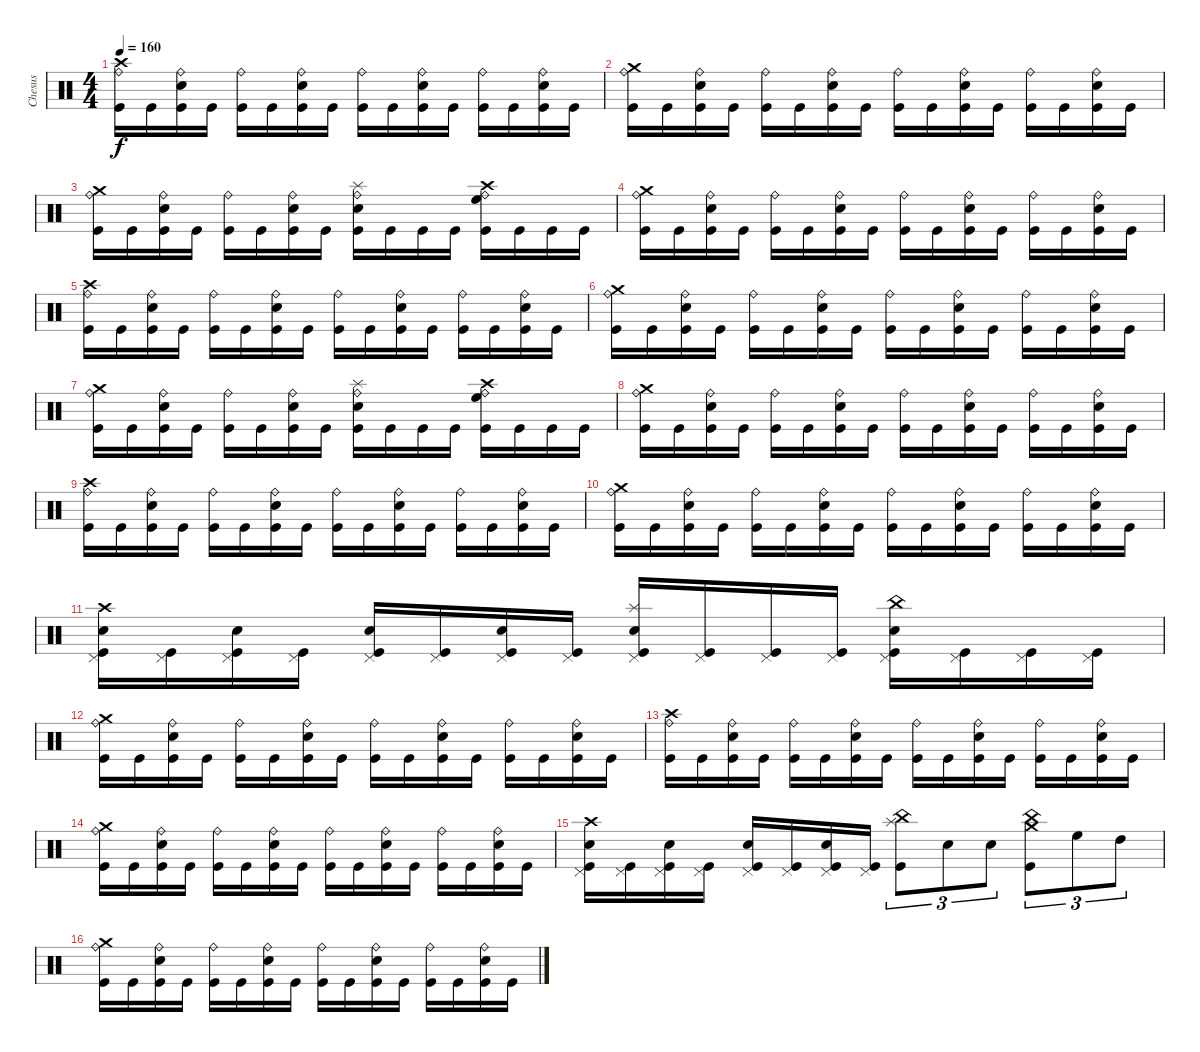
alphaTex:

\track ("Chesus" "Chesus") {instrument percussion}
\staff {score}
\articulation defaults
\ts (4 4)
\tempo 160
\clef neutral
\ks c
("Crash high (hit)" "Ride (bell)" "Kick (hit)").16{dy f} "Kick (hit)".16 ("Ride (bell)" "Snare (hit) 2" "Kick (hit)").16 "Kick (hit)".16 ("Ride (bell)" "Kick (hit)").16 "Kick (hit)".16 ("Ride (bell)" "Snare (hit) 2" "Kick (hit)").16 "Kick (hit)".16 ("Ride (bell)" "Kick (hit)").16 "Kick (hit)".16 ("Ride (bell)" "Snare (hit) 2" "Kick (hit)").16 "Kick (hit)".16 ("Ride (bell)" "Kick (hit)").16 "Kick (hit)".16 ("Ride (bell)" "Snare (hit) 2" "Kick (hit)").16 "Kick (hit)".16 |
("Crash medium (hit)" "Ride (bell)" "Kick (hit)").16 "Kick (hit)".16 ("Ride (bell)" "Snare (hit) 2" "Kick (hit)").16 "Kick (hit)".16 ("Ride (bell)" "Kick (hit)").16 "Kick (hit)".16 ("Ride (bell)" "Snare (hit) 2" "Kick (hit)").16 "Kick (hit)".16 ("Ride (bell)" "Kick (hit)").16 "Kick (hit)".16 ("Ride (bell)" "Snare (hit) 2" "Kick (hit)").16 "Kick (hit)".16 ("Ride (bell)" "Kick (hit)").16 "Kick (hit)".16 ("Ride (bell)" "Snare (hit) 2" "Kick (hit)").16 "Kick (hit)".16 |
("Crash medium (hit)" "Ride (bell)" "Kick (hit)").16 "Kick (hit)".16 ("Ride (bell)" "Snare (hit) 2" "Kick (hit)").16 "Kick (hit)".16 ("Ride (bell)" "Kick (hit)").16 "Kick (hit)".16 ("Ride (bell)" "Snare (hit) 2" "Kick (hit)").16 "Kick (hit)".16 ("Splash (hit)" "Ride (bell)" "Snare (hit) 2" "Kick (hit)").16 "Kick (hit)".16 "Kick (hit)".16 "Kick (hit)".16 ("Crash high (hit)" "Ride (bell)" "High Floor Tom (hit)" "Kick (hit)").16 "Kick (hit)".16 "Kick (hit)".16 "Kick (hit)".16 |
("Crash medium (hit)" "Ride (bell)" "Kick (hit)").16 "Kick (hit)".16 ("Ride (bell)" "Snare (hit) 2" "Kick (hit)").16 "Kick (hit)".16 ("Ride (bell)" "Kick (hit)").16 "Kick (hit)".16 ("Ride (bell)" "Snare (hit) 2" "Kick (hit)").16 "Kick (hit)".16 ("Ride (bell)" "Kick (hit)").16 "Kick (hit)".16 ("Ride (bell)" "Snare (hit) 2" "Kick (hit)").16 "Kick (hit)".16 ("Ride (bell)" "Kick (hit)").16 "Kick (hit)".16 ("Ride (bell)" "Snare (hit) 2" "Kick (hit)").16 "Kick (hit)".16 |
("Crash high (hit)" "Ride (bell)" "Kick (hit)").16 "Kick (hit)".16 ("Ride (bell)" "Snare (hit) 2" "Kick (hit)").16 "Kick (hit)".16 ("Ride (bell)" "Kick (hit)").16 "Kick (hit)".16 ("Ride (bell)" "Snare (hit) 2" "Kick (hit)").16 "Kick (hit)".16 ("Ride (bell)" "Kick (hit)").16 "Kick (hit)".16 ("Ride (bell)" "Snare (hit) 2" "Kick (hit)").16 "Kick (hit)".16 ("Ride (bell)" "Kick (hit)").16 "Kick (hit)".16 ("Ride (bell)" "Snare (hit) 2" "Kick (hit)").16 "Kick (hit)".16 |
("Crash medium (hit)" "Ride (bell)" "Kick (hit)").16 "Kick (hit)".16 ("Ride (bell)" "Snare (hit) 2" "Kick (hit)").16 "Kick (hit)".16 ("Ride (bell)" "Kick (hit)").16 "Kick (hit)".16 ("Ride (bell)" "Snare (hit) 2" "Kick (hit)").16 "Kick (hit)".16 ("Ride (bell)" "Kick (hit)").16 "Kick (hit)".16 ("Ride (bell)" "Snare (hit) 2" "Kick (hit)").16 "Kick (hit)".16 ("Ride (bell)" "Kick (hit)").16 "Kick (hit)".16 ("Ride (bell)" "Snare (hit) 2" "Kick (hit)").16 "Kick (hit)".16 |
("Crash medium (hit)" "Ride (bell)" "Kick (hit)").16 "Kick (hit)".16 ("Ride (bell)" "Snare (hit) 2" "Kick (hit)").16 "Kick (hit)".16 ("Ride (bell)" "Kick (hit)").16 "Kick (hit)".16 ("Ride (bell)" "Snare (hit) 2" "Kick (hit)").16 "Kick (hit)".16 ("Splash (hit)" "Ride (bell)" "Snare (hit) 2" "Kick (hit)").16 "Kick (hit)".16 "Kick (hit)".16 "Kick (hit)".16 ("Crash high (hit)" "Ride (bell)" "High Floor Tom (hit)" "Kick (hit)").16 "Kick (hit)".16 "Kick (hit)".16 "Kick (hit)".16 |
("Crash medium (hit)" "Ride (bell)" "Kick (hit)").16 "Kick (hit)".16 ("Ride (bell)" "Snare (hit) 2" "Kick (hit)").16 "Kick (hit)".16 ("Ride (bell)" "Kick (hit)").16 "Kick (hit)".16 ("Ride (bell)" "Snare (hit) 2" "Kick (hit)").16 "Kick (hit)".16 ("Ride (bell)" "Kick (hit)").16 "Kick (hit)".16 ("Ride (bell)" "Snare (hit) 2" "Kick (hit)").16 "Kick (hit)".16 ("Ride (bell)" "Kick (hit)").16 "Kick (hit)".16 ("Ride (bell)" "Snare (hit) 2" "Kick (hit)").16 "Kick (hit)".16 |
("Crash high (hit)" "Ride (bell)" "Kick (hit)").16 "Kick (hit)".16 ("Ride (bell)" "Snare (hit) 2" "Kick (hit)").16 "Kick (hit)".16 ("Ride (bell)" "Kick (hit)").16 "Kick (hit)".16 ("Ride (bell)" "Snare (hit) 2" "Kick (hit)").16 "Kick (hit)".16 ("Ride (bell)" "Kick (hit)").16 "Kick (hit)".16 ("Ride (bell)" "Snare (hit) 2" "Kick (hit)").16 "Kick (hit)".16 ("Ride (bell)" "Kick (hit)").16 "Kick (hit)".16 ("Ride (bell)" "Snare (hit) 2" "Kick (hit)").16 "Kick (hit)".16 |
("Crash medium (hit)" "Ride (bell)" "Kick (hit)").16 "Kick (hit)".16 ("Ride (bell)" "Snare (hit) 2" "Kick (hit)").16 "Kick (hit)".16 ("Ride (bell)" "Kick (hit)").16 "Kick (hit)".16 ("Ride (bell)" "Snare (hit) 2" "Kick (hit)").16 "Kick (hit)".16 ("Ride (bell)" "Kick (hit)").16 "Kick (hit)".16 ("Ride (bell)" "Snare (hit) 2" "Kick (hit)").16 "Kick (hit)".16 ("Ride (bell)" "Kick (hit)").16 "Kick (hit)".16 ("Ride (bell)" "Snare (hit) 2" "Kick (hit)").16 "Kick (hit)".16 |
("Crash high (hit)" "Pedal Hi-Hat (hit)" "Snare (hit) 2" "Kick (hit)").16 ("Pedal Hi-Hat (hit)" "Kick (hit)").16 ("Pedal Hi-Hat (hit)" "Snare (hit) 2" "Kick (hit)").16 ("Pedal Hi-Hat (hit)" "Kick (hit)").16 ("Pedal Hi-Hat (hit)" "Snare (hit) 2" "Kick (hit)").16 ("Pedal Hi-Hat (hit)" "Kick (hit)").16 ("Pedal Hi-Hat (hit)" "Snare (hit) 2" "Kick (hit)").16 ("Pedal Hi-Hat (hit)" "Kick (hit)").16 ("Splash (hit)" "Pedal Hi-Hat (hit)" "Snare (hit) 2" "Kick (hit)").16 ("Pedal Hi-Hat (hit)" "Kick (hit)").16 ("Pedal Hi-Hat (hit)" "Kick (hit)").16 ("Pedal Hi-Hat (hit)" "Kick (hit)").16 ("China (hit)" "Pedal Hi-Hat (hit)" "Snare (hit) 2" "Kick (hit)").16 ("Pedal Hi-Hat (hit)" "Kick (hit)").16 ("Pedal Hi-Hat (hit)" "Kick (hit)").16 ("Pedal Hi-Hat (hit)" "Kick (hit)").16 |
("Crash medium (hit)" "Ride (bell)" "Kick (hit)").16 "Kick (hit)".16 ("Ride (bell)" "Snare (hit) 2" "Kick (hit)").16 "Kick (hit)".16 ("Ride (bell)" "Kick (hit)").16 "Kick (hit)".16 ("Ride (bell)" "Snare (hit) 2" "Kick (hit)").16 "Kick (hit)".16 ("Ride (bell)" "Kick (hit)").16 "Kick (hit)".16 ("Ride (bell)" "Snare (hit) 2" "Kick (hit)").16 "Kick (hit)".16 ("Ride (bell)" "Kick (hit)").16 "Kick (hit)".16 ("Ride (bell)" "Snare (hit) 2" "Kick (hit)").16 "Kick (hit)".16 |
("Crash high (hit)" "Ride (bell)" "Kick (hit)").16 "Kick (hit)".16 ("Ride (bell)" "Snare (hit) 2" "Kick (hit)").16 "Kick (hit)".16 ("Ride (bell)" "Kick (hit)").16 "Kick (hit)".16 ("Ride (bell)" "Snare (hit) 2" "Kick (hit)").16 "Kick (hit)".16 ("Ride (bell)" "Kick (hit)").16 "Kick (hit)".16 ("Ride (bell)" "Snare (hit) 2" "Kick (hit)").16 "Kick (hit)".16 ("Ride (bell)" "Kick (hit)").16 "Kick (hit)".16 ("Ride (bell)" "Snare (hit) 2" "Kick (hit)").16 "Kick (hit)".16 |
("Crash medium (hit)" "Ride (bell)" "Kick (hit)").16 "Kick (hit)".16 ("Ride (bell)" "Snare (hit) 2" "Kick (hit)").16 "Kick (hit)".16 ("Ride (bell)" "Kick (hit)").16 "Kick (hit)".16 ("Ride (bell)" "Snare (hit) 2" "Kick (hit)").16 "Kick (hit)".16 ("Ride (bell)" "Kick (hit)").16 "Kick (hit)".16 ("Ride (bell)" "Snare (hit) 2" "Kick (hit)").16 "Kick (hit)".16 ("Ride (bell)" "Kick (hit)").16 "Kick (hit)".16 ("Ride (bell)" "Snare (hit) 2" "Kick (hit)").16 "Kick (hit)".16 |
("Crash high (hit)" "Pedal Hi-Hat (hit)" "Snare (hit) 2" "Kick (hit)").16 ("Pedal Hi-Hat (hit)" "Kick (hit)").16 ("Pedal Hi-Hat (hit)" "Snare (hit) 2" "Kick (hit)").16 ("Pedal Hi-Hat (hit)" "Kick (hit)").16 ("Pedal Hi-Hat (hit)" "Snare (hit) 2" "Kick (hit)").16 ("Pedal Hi-Hat (hit)" "Kick (hit)").16 ("Pedal Hi-Hat (hit)" "Snare (hit) 2" "Kick (hit)").16 ("Pedal Hi-Hat (hit)" "Kick (hit)").16 ("Splash (hit)" "China (hit)" "Kick (hit)").8{tu (3 2)} "Snare (hit) 2".8{tu (3 2)} "Snare (hit) 2".8{tu (3 2)} ("Crash medium (hit)" "China (hit)" "Kick (hit)").8{tu (3 2)} "High Floor Tom (hit)".8{tu (3 2)} "High Tom (hit)".8{tu (3 2)} |
("Crash medium (hit)" "Ride (bell)" "Kick (hit)").16 "Kick (hit)".16 ("Ride (bell)" "Snare (hit) 2" "Kick (hit)").16 "Kick (hit)".16 ("Ride (bell)" "Kick (hit)").16 "Kick (hit)".16 ("Ride (bell)" "Snare (hit) 2" "Kick (hit)").16 "Kick (hit)".16 ("Ride (bell)" "Kick (hit)").16 "Kick (hit)".16 ("Ride (bell)" "Snare (hit) 2" "Kick (hit)").16 "Kick (hit)".16 ("Ride (bell)" "Kick (hit)").16 "Kick (hit)".16 ("Ride (bell)" "Snare (hit) 2" "Kick (hit)").16 "Kick (hit)".16
